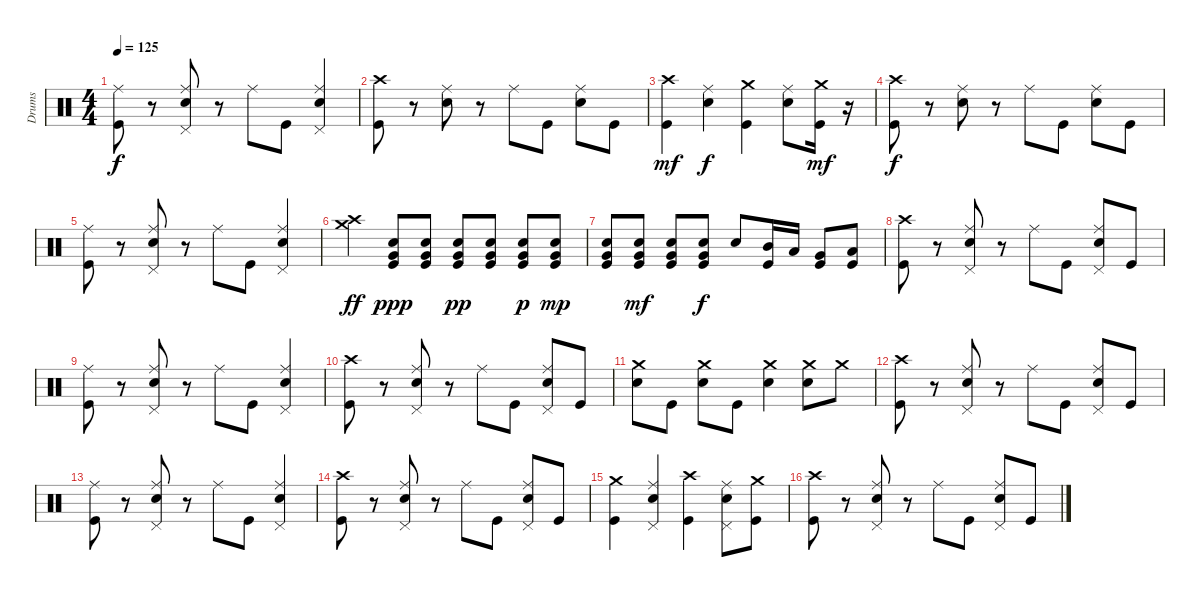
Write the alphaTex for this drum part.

\track ("Drums" "Drums") {instrument percussion}
\staff {score}
\articulation defaults
\ts (4 4)
\tempo 125
\clef neutral
\ks c
("Kick (hit)" "Ride (middle)").8{dy f} r.8 ("Snare (hit) 2" "Ride (middle)" "Pedal Hi-Hat (hit)").8 r.8 "Ride (middle)".8 "Kick (hit)".8 ("Snare (hit) 2" "Ride (middle)" "Pedal Hi-Hat (hit)").4 |
("Crash high (hit)" "Kick (hit)").8 r.8 ("Snare (hit) 2" "Ride (middle)").8 r.8 "Ride (middle)".8 "Kick (hit)".8 ("Snare (hit) 2" "Ride (middle)").8 "Kick (hit)".8 |
("Kick (hit)" "Crash high (hit)").4{dy mf} ("Snare (hit) 2" "Ride (middle)").4{dy f} ("Kick (hit)" "Crash medium (hit)").4 ("Snare (hit) 2" "Ride (middle)").8 ("Crash medium (hit)" "Kick (hit)").16{dy mf} r.16 |
("Crash high (hit)" "Kick (hit)").8{dy f} r.8 ("Snare (hit) 2" "Ride (middle)").8 r.8 "Ride (middle)".8 "Kick (hit)".8 ("Snare (hit) 2" "Ride (middle)").8 "Kick (hit)".8 |
("Kick (hit)" "Ride (middle)").8 r.8 ("Snare (hit) 2" "Ride (middle)" "Pedal Hi-Hat (hit)").8 r.8 "Ride (middle)".8 "Kick (hit)".8 ("Snare (hit) 2" "Ride (middle)" "Pedal Hi-Hat (hit)").4 |
("Crash medium (hit)" "Crash high (hit)").4{dy ff} ("Very Low Tom (hit)" "Snare (hit) 2" "Kick (hit)").8{dy ppp} ("Very Low Tom (hit)" "Kick (hit)" "Snare (hit) 2").8 ("Very Low Tom (hit)" "Kick (hit)" "Snare (hit) 2").8{dy pp} ("Kick (hit)" "Snare (hit) 2" "Very Low Tom (hit)").8 ("Kick (hit)" "Snare (hit) 2" "Very Low Tom (hit)").8{dy p} ("Kick (hit)" "Snare (hit) 2" "Very Low Tom (hit)").8{dy mp} |
("Snare (hit) 2" "Very Low Tom (hit)" "Kick (hit)").8 ("Kick (hit)" "Snare (hit) 2" "Very Low Tom (hit)").8{dy mf} ("Kick (hit)" "Snare (hit) 2" "Very Low Tom (hit)").8 ("Kick (hit)" "Snare (hit) 2" "Very Low Tom (hit)").8{dy f} "Snare (hit) 2".8 ("Mid Tom (hit)" "Kick (hit)").16 "Low Tom (hit)".16 ("Very Low Tom (hit)" "Kick (hit)").8 ("Low Floor Tom (hit)" "Kick (hit)").8 |
("Crash high (hit)" "Kick (hit)").8 r.8 ("Snare (hit) 2" "Ride (middle)" "Pedal Hi-Hat (hit)").8 r.8 "Ride (middle)".8 "Kick (hit)".8 ("Snare (hit) 2" "Ride (middle)" "Pedal Hi-Hat (hit)").8 "Kick (hit)".8 |
("Kick (hit)" "Ride (middle)").8 r.8 ("Snare (hit) 2" "Ride (middle)" "Pedal Hi-Hat (hit)").8 r.8 "Ride (middle)".8 "Kick (hit)".8 ("Snare (hit) 2" "Ride (middle)" "Pedal Hi-Hat (hit)").4 |
("Crash high (hit)" "Kick (hit)").8 r.8 ("Snare (hit) 2" "Ride (middle)" "Pedal Hi-Hat (hit)").8 r.8 "Ride (middle)".8 "Kick (hit)".8 ("Snare (hit) 2" "Ride (middle)" "Pedal Hi-Hat (hit)").8 "Kick (hit)".8 |
("Snare (hit) 2" "Crash medium (hit)").8 "Kick (hit)".8 ("Snare (hit) 2" "Crash medium (hit)").8 "Kick (hit)".8 ("Snare (hit) 2" "Crash medium (hit)").4 ("Snare (hit) 2" "Crash medium (hit)").8 "Crash medium (hit)".8 |
("Crash high (hit)" "Kick (hit)").8 r.8 ("Snare (hit) 2" "Ride (middle)" "Pedal Hi-Hat (hit)").8 r.8 "Ride (middle)".8 "Kick (hit)".8 ("Snare (hit) 2" "Ride (middle)" "Pedal Hi-Hat (hit)").8 "Kick (hit)".8 |
("Kick (hit)" "Ride (middle)").8 r.8 ("Snare (hit) 2" "Ride (middle)" "Pedal Hi-Hat (hit)").8 r.8 "Ride (middle)".8 "Kick (hit)".8 ("Snare (hit) 2" "Ride (middle)" "Pedal Hi-Hat (hit)").4 |
("Crash high (hit)" "Kick (hit)").8 r.8 ("Snare (hit) 2" "Ride (middle)" "Pedal Hi-Hat (hit)").8 r.8 "Ride (middle)".8 "Kick (hit)".8 ("Snare (hit) 2" "Ride (middle)" "Pedal Hi-Hat (hit)").8 "Kick (hit)".8 |
("Kick (hit)" "Crash medium (hit)").4 ("Snare (hit) 2" "Pedal Hi-Hat (hit)" "Ride (middle)").4 ("Crash high (hit)" "Kick (hit)").4 ("Snare (hit) 2" "Pedal Hi-Hat (hit)" "Ride (middle)").8 ("Crash medium (hit)" "Kick (hit)").8 |
("Crash high (hit)" "Kick (hit)").8 r.8 ("Snare (hit) 2" "Ride (middle)" "Pedal Hi-Hat (hit)").8 r.8 "Ride (middle)".8 "Kick (hit)".8 ("Snare (hit) 2" "Ride (middle)" "Pedal Hi-Hat (hit)").8 "Kick (hit)".8
